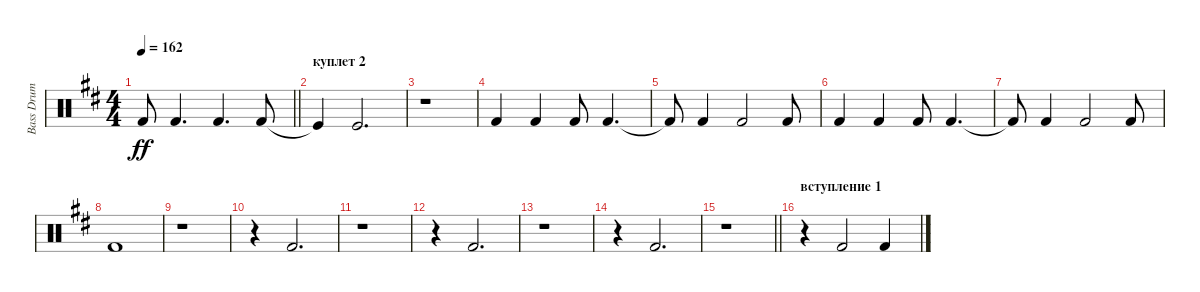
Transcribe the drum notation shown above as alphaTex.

\track ("Bass Drum" "Bass Drum") {instrument percussion}
\staff {score}
\articulation defaults
\ts (4 4)
\tempo 162
\clef neutral
\barLineRight lightlight
\ks bminor "Kick (hit) 2"{t}.8{dy ff} "Kick (hit) 2".4{d} "Kick (hit) 2".4{d} "Kick (hit) 2".8
|
\section ("" "куплет 2")
"Kick (hit)"{t}.4 "Kick (hit)".2{d} |
r.1 |
"Kick (hit) 2".4 "Kick (hit) 2".4 "Kick (hit) 2".8 "Kick (hit) 2".4{d} |
"Kick (hit) 2"{t}.8 "Kick (hit) 2".4 "Kick (hit) 2".2 "Kick (hit) 2".8 |
"Kick (hit) 2".4 "Kick (hit) 2".4 "Kick (hit) 2".8 "Kick (hit) 2".4{d} |
"Kick (hit) 2"{t}.8 "Kick (hit) 2".4 "Kick (hit) 2".2 "Kick (hit) 2".8 |
"Kick (hit) 2".1 |
r.1 |
r.4 "Kick (hit) 2".2{d} |
r.1 |
r.4 "Kick (hit) 2".2{d} |
r.1 |
r.4 "Kick (hit) 2".2{d} |
\barLineRight lightlight
r.1 |
\section ("" "вступление 1")
r.4 "Kick (hit) 2".2 "Kick (hit) 2".4
